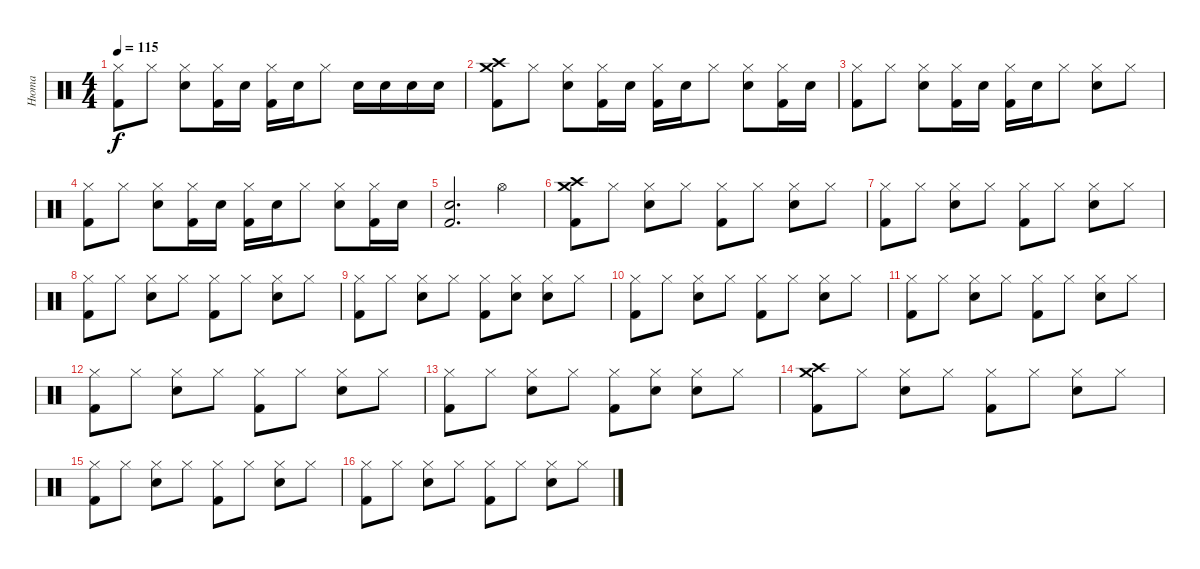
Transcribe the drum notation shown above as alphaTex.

\track ("Нюта" "Нюта") {instrument percussion}
\staff {score}
\articulation defaults
\ts (4 4)
\tempo 115
\clef neutral
\ks c
("Hi-Hat (closed)" "Kick (hit) 2").8{dy f} "Hi-Hat (closed)".8 ("Hi-Hat (closed)" "Snare (hit) 2").8 ("Hi-Hat (closed)" "Kick (hit) 2").16 "Snare (hit) 2".16 ("Hi-Hat (closed)" "Kick (hit) 2").16 "Snare (hit) 2".16 "Hi-Hat (closed)".8 "Snare (hit) 2".16 "Snare (hit) 2".16 "Snare (hit) 2".16 "Snare (hit) 2".16 |
("Crash medium (hit)" "Crash high (hit)" "Kick (hit) 2").8 "Hi-Hat (closed)".8 ("Hi-Hat (closed)" "Snare (hit) 2").8 ("Hi-Hat (closed)" "Kick (hit) 2").16 "Snare (hit) 2".16 ("Hi-Hat (closed)" "Kick (hit) 2").16 "Snare (hit) 2".16 "Hi-Hat (closed)".8 ("Hi-Hat (closed)" "Snare (hit) 2").8 ("Hi-Hat (closed)" "Kick (hit) 2").16 "Snare (hit) 2".16 |
("Hi-Hat (closed)" "Kick (hit) 2").8 "Hi-Hat (closed)".8 ("Hi-Hat (closed)" "Snare (hit) 2").8 ("Hi-Hat (closed)" "Kick (hit) 2").16 "Snare (hit) 2".16 ("Hi-Hat (closed)" "Kick (hit) 2").16 "Snare (hit) 2".16 "Hi-Hat (closed)".8 ("Hi-Hat (closed)" "Snare (hit) 2").8 "Hi-Hat (closed)".8 |
("Hi-Hat (closed)" "Kick (hit) 2").8 "Hi-Hat (closed)".8 ("Hi-Hat (closed)" "Snare (hit) 2").8 ("Hi-Hat (closed)" "Kick (hit) 2").16 "Snare (hit) 2".16 ("Hi-Hat (closed)" "Kick (hit) 2").16 "Snare (hit) 2".16 "Hi-Hat (closed)".8 ("Hi-Hat (closed)" "Snare (hit) 2").8 ("Hi-Hat (closed)" "Kick (hit) 2").16 "Snare (hit) 2".16 |
("Electric Snare (hit)" "Kick (hit) 2").2{d} "Hi-Hat (open)".4 |
("Crash high (hit)" "Kick (hit) 2" "Crash medium (hit)").8 "Hi-Hat (closed)".8 ("Hi-Hat (closed)" "Electric Snare (hit)").8 "Hi-Hat (closed)".8 ("Hi-Hat (closed)" "Kick (hit) 2").8 "Hi-Hat (closed)".8 ("Hi-Hat (closed)" "Electric Snare (hit)").8 "Hi-Hat (closed)".8 |
("Hi-Hat (closed)" "Kick (hit) 2").8 "Hi-Hat (closed)".8 ("Hi-Hat (closed)" "Electric Snare (hit)").8 "Hi-Hat (closed)".8 ("Hi-Hat (closed)" "Kick (hit) 2").8 "Hi-Hat (closed)".8 ("Hi-Hat (closed)" "Electric Snare (hit)").8 "Hi-Hat (closed)".8 |
("Hi-Hat (closed)" "Kick (hit) 2").8 "Hi-Hat (closed)".8 ("Hi-Hat (closed)" "Electric Snare (hit)").8 "Hi-Hat (closed)".8 ("Hi-Hat (closed)" "Kick (hit) 2").8 "Hi-Hat (closed)".8 ("Hi-Hat (closed)" "Electric Snare (hit)").8 "Hi-Hat (closed)".8 |
("Hi-Hat (closed)" "Kick (hit) 2").8 "Hi-Hat (closed)".8 ("Hi-Hat (closed)" "Electric Snare (hit)").8 "Hi-Hat (closed)".8 ("Hi-Hat (closed)" "Kick (hit) 2").8 ("Hi-Hat (closed)" "Electric Snare (hit)").8 ("Hi-Hat (closed)" "Electric Snare (hit)").8 "Hi-Hat (closed)".8 |
("Hi-Hat (closed)" "Kick (hit) 2").8 "Hi-Hat (closed)".8 ("Hi-Hat (closed)" "Electric Snare (hit)").8 "Hi-Hat (closed)".8 ("Hi-Hat (closed)" "Kick (hit) 2").8 "Hi-Hat (closed)".8 ("Hi-Hat (closed)" "Electric Snare (hit)").8 "Hi-Hat (closed)".8 |
("Hi-Hat (closed)" "Kick (hit) 2").8 "Hi-Hat (closed)".8 ("Hi-Hat (closed)" "Electric Snare (hit)").8 "Hi-Hat (closed)".8 ("Hi-Hat (closed)" "Kick (hit) 2").8 "Hi-Hat (closed)".8 ("Hi-Hat (closed)" "Electric Snare (hit)").8 "Hi-Hat (closed)".8 |
("Hi-Hat (closed)" "Kick (hit) 2").8 "Hi-Hat (closed)".8 ("Hi-Hat (closed)" "Electric Snare (hit)").8 "Hi-Hat (closed)".8 ("Hi-Hat (closed)" "Kick (hit) 2").8 "Hi-Hat (closed)".8 ("Hi-Hat (closed)" "Electric Snare (hit)").8 "Hi-Hat (closed)".8 |
("Hi-Hat (closed)" "Kick (hit) 2").8 "Hi-Hat (closed)".8 ("Hi-Hat (closed)" "Electric Snare (hit)").8 "Hi-Hat (closed)".8 ("Hi-Hat (closed)" "Kick (hit) 2").8 ("Hi-Hat (closed)" "Electric Snare (hit)").8 ("Hi-Hat (closed)" "Electric Snare (hit)").8 "Hi-Hat (closed)".8 |
("Crash high (hit)" "Kick (hit) 2" "Crash medium (hit)").8 "Hi-Hat (closed)".8 ("Hi-Hat (closed)" "Electric Snare (hit)").8 "Hi-Hat (closed)".8 ("Hi-Hat (closed)" "Kick (hit) 2").8 "Hi-Hat (closed)".8 ("Hi-Hat (closed)" "Electric Snare (hit)").8 "Hi-Hat (closed)".8 |
("Hi-Hat (closed)" "Kick (hit) 2").8 "Hi-Hat (closed)".8 ("Hi-Hat (closed)" "Electric Snare (hit)").8 "Hi-Hat (closed)".8 ("Hi-Hat (closed)" "Kick (hit) 2").8 "Hi-Hat (closed)".8 ("Hi-Hat (closed)" "Electric Snare (hit)").8 "Hi-Hat (closed)".8 |
("Hi-Hat (closed)" "Kick (hit) 2").8 "Hi-Hat (closed)".8 ("Hi-Hat (closed)" "Electric Snare (hit)").8 "Hi-Hat (closed)".8 ("Hi-Hat (closed)" "Kick (hit) 2").8 "Hi-Hat (closed)".8 ("Hi-Hat (closed)" "Electric Snare (hit)").8 "Hi-Hat (closed)".8
